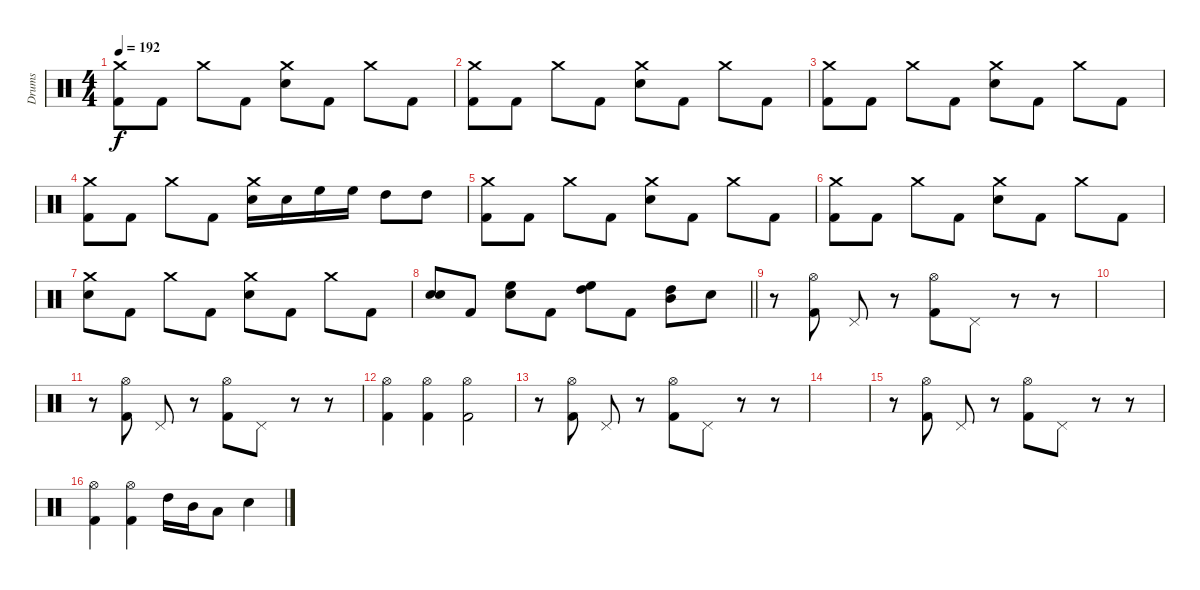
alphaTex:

\track ("Drums" "Drums") {instrument percussion}
\staff {score}
\articulation defaults
\ts (4 4)
\tempo 192
\clef neutral
\ks c
("Crash medium (hit)" "Kick (hit) 2").8{dy f} "Kick (hit) 2".8 "Crash medium (hit)".8 "Kick (hit) 2".8 ("Crash medium (hit)" "Electric Snare (hit)").8 "Kick (hit) 2".8 "Crash medium (hit)".8 "Kick (hit) 2".8 |
("Crash medium (hit)" "Kick (hit) 2").8 "Kick (hit) 2".8 "Crash medium (hit)".8 "Kick (hit) 2".8 ("Crash medium (hit)" "Electric Snare (hit)").8 "Kick (hit) 2".8 "Crash medium (hit)".8 "Kick (hit) 2".8 |
("Crash medium (hit)" "Kick (hit) 2").8 "Kick (hit) 2".8 "Crash medium (hit)".8 "Kick (hit) 2".8 ("Crash medium (hit)" "Electric Snare (hit)").8 "Kick (hit) 2".8 "Crash medium (hit)".8 "Kick (hit) 2".8 |
("Crash medium (hit)" "Kick (hit) 2").8 "Kick (hit) 2".8 "Crash medium (hit)".8 "Kick (hit) 2".8 ("Crash medium (hit)" "Electric Snare (hit)").16 "Electric Snare (hit)".16 "High Floor Tom (hit)".16 "High Floor Tom (hit)".16 "High Tom (hit)".8 "High Tom (hit)".8 |
("Crash medium (hit)" "Kick (hit) 2").8 "Kick (hit) 2".8 "Crash medium (hit)".8 "Kick (hit) 2".8 ("Crash medium (hit)" "Electric Snare (hit)").8 "Kick (hit) 2".8 "Crash medium (hit)".8 "Kick (hit) 2".8 |
("Crash medium (hit)" "Kick (hit) 2").8 "Kick (hit) 2".8 "Crash medium (hit)".8 "Kick (hit) 2".8 ("Crash medium (hit)" "Electric Snare (hit)").8 "Kick (hit) 2".8 "Crash medium (hit)".8 "Kick (hit) 2".8 |
("Crash medium (hit)" "Electric Snare (hit)").8 "Kick (hit) 2".8 "Crash medium (hit)".8 "Kick (hit) 2".8 ("Crash medium (hit)" "Electric Snare (hit)").8 "Kick (hit) 2".8 "Crash medium (hit)".8 "Kick (hit) 2".8 |
\barLineRight lightlight
("Electric Snare (hit)" "Electric Snare (hit)").8 "Kick (hit) 2".8 ("Electric Snare (hit)" "High Floor Tom (hit)").8 "Kick (hit) 2".8 ("High Floor Tom (hit)" "High Tom (hit)").8 "Kick (hit) 2".8 ("High Tom (hit)" "Mid Tom (hit)").8 "Electric Snare (hit)".8 |
r.8 ("Hi-Hat (open)" "Kick (hit) 2").8 "Pedal Hi-Hat (hit)".8 r.8 ("Hi-Hat (open)" "Kick (hit) 2").8 "Pedal Hi-Hat (hit)".8 r.8 r.8 |
|
r.8 ("Hi-Hat (open)" "Kick (hit) 2").8 "Pedal Hi-Hat (hit)".8 r.8 ("Hi-Hat (open)" "Kick (hit) 2").8 "Pedal Hi-Hat (hit)".8 r.8 r.8 |
("Hi-Hat (open)" "Kick (hit) 2").4 ("Hi-Hat (open)" "Kick (hit) 2").4 ("Hi-Hat (open)" "Kick (hit) 2").2 |
r.8 ("Hi-Hat (open)" "Kick (hit) 2").8 "Pedal Hi-Hat (hit)".8 r.8 ("Hi-Hat (open)" "Kick (hit) 2").8 "Pedal Hi-Hat (hit)".8 r.8 r.8 |
|
r.8 ("Hi-Hat (open)" "Kick (hit) 2").8 "Pedal Hi-Hat (hit)".8 r.8 ("Hi-Hat (open)" "Kick (hit) 2").8 "Pedal Hi-Hat (hit)".8 r.8 r.8 |
("Hi-Hat (open)" "Kick (hit) 2").4 ("Hi-Hat (open)" "Kick (hit) 2").4 "High Tom (hit)".16 "Mid Tom (hit)".16 "Low Tom (hit)".8 "Electric Snare (hit)".4
